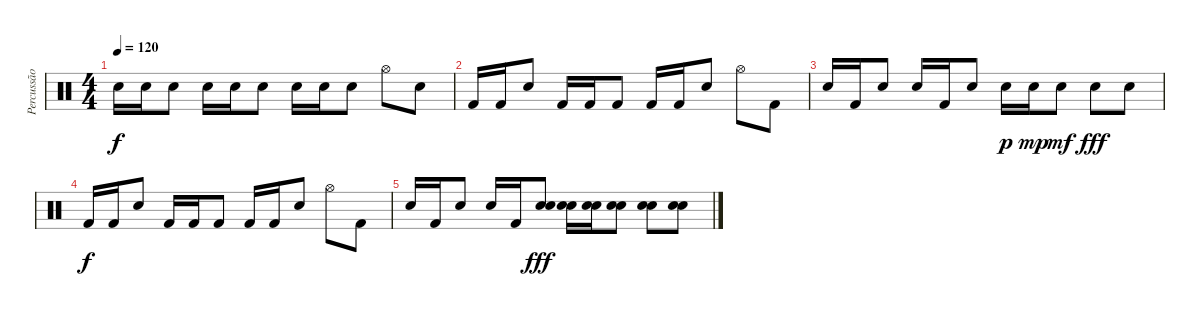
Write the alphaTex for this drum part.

\track ("Percussão" "Percussão") {instrument percussion}
\staff {score}
\articulation defaults
\ts (4 4)
\tempo 120
\clef neutral
\ks c "Electric Snare (hit)".16{dy f} "Electric Snare (hit)".16 "Snare (hit) 2".8 "Electric Snare (hit)".16 "Electric Snare (hit)".16 "Electric Snare (hit)".8 "Electric Snare (hit)".16 "Electric Snare (hit)".16 "Snare (hit) 2".8 "Hi-Hat (open)".8 "Electric Snare (hit)".8
|
"Kick (hit) 2".16 "Kick (hit) 2".16 "Snare (hit) 2".8 "Kick (hit) 2".16 "Kick (hit) 2".16 "Kick (hit) 2".8 "Kick (hit) 2".16 "Kick (hit) 2".16 "Snare (hit) 2".8 "Hi-Hat (open)".8 "Kick (hit) 2".8 |
"Electric Snare (hit)".16 "Kick (hit) 2".16 "Snare (hit) 2".8 "Electric Snare (hit)".16 "Kick (hit) 2".16 "Electric Snare (hit)".8 "Electric Snare (hit)".16{dy p} "Electric Snare (hit)".16{dy mp} "Electric Snare (hit)".8{dy mf} "Electric Snare (hit)".8{dy fff} "Electric Snare (hit)".8 |
"Kick (hit) 2".16{dy f} "Kick (hit) 2".16 "Snare (hit) 2".8 "Kick (hit) 2".16 "Kick (hit) 2".16 "Kick (hit) 2".8 "Kick (hit) 2".16 "Kick (hit) 2".16 "Snare (hit) 2".8 "Hi-Hat (open)".8 "Kick (hit) 2".8 |
"Electric Snare (hit)".16 "Kick (hit) 2".16 "Snare (hit) 2".8 "Electric Snare (hit)".16 "Kick (hit) 2".16 ("Electric Snare (hit)" "Electric Snare (hit)").8{dy fff} ("Electric Snare (hit)" "Electric Snare (hit)").16 ("Electric Snare (hit)" "Electric Snare (hit)").16 ("Electric Snare (hit)" "Electric Snare (hit)").8 ("Electric Snare (hit)" "Electric Snare (hit)").8 ("Electric Snare (hit)" "Electric Snare (hit)").8
